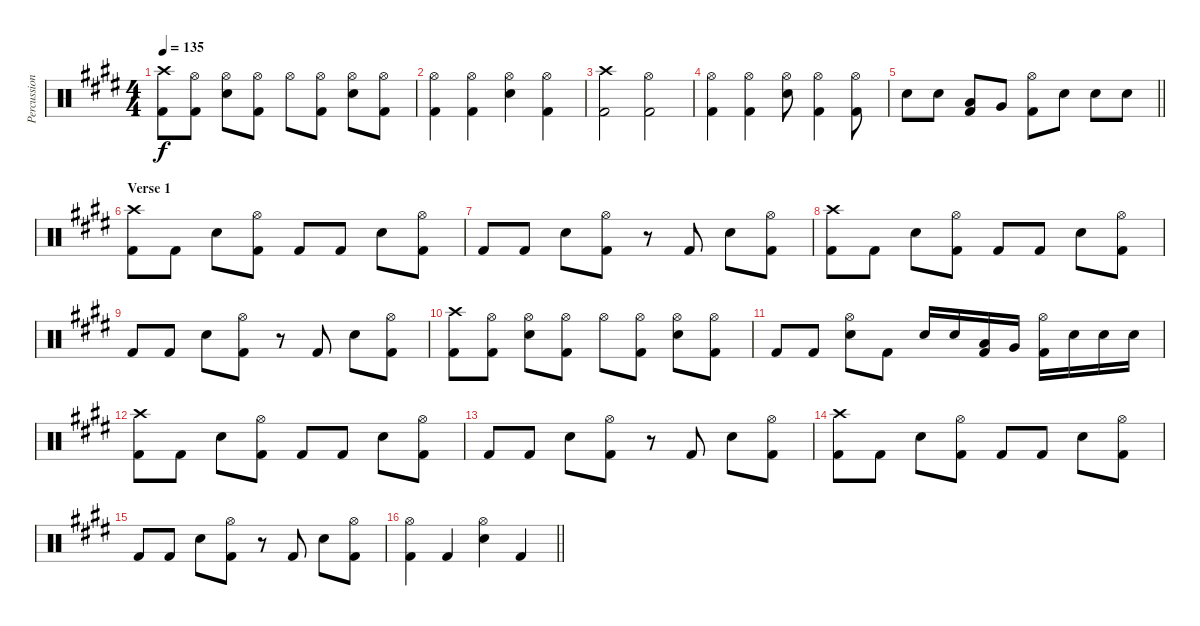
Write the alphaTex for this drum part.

\track ("Percussion" "Percussion") {instrument percussion}
\staff {score}
\articulation defaults
\ts (4 4)
\tempo 135
\clef neutral
\ks e
("Crash high (hit)" "Kick (hit) 2").8{dy f} ("Hi-Hat (open)" "Kick (hit) 2").8 ("Hi-Hat (open)" "Electric Snare (hit)").8 ("Hi-Hat (open)" "Kick (hit) 2").8 "Hi-Hat (open)".8 ("Hi-Hat (open)" "Kick (hit) 2").8 ("Hi-Hat (open)" "Electric Snare (hit)").8 ("Hi-Hat (open)" "Kick (hit) 2").8 |
("Hi-Hat (open)" "Kick (hit) 2").4 ("Hi-Hat (open)" "Kick (hit) 2").4 ("Hi-Hat (open)" "Electric Snare (hit)").4 ("Hi-Hat (open)" "Kick (hit) 2").4 |
("Crash high (hit)" "Kick (hit) 2").2 ("Hi-Hat (open)" "Kick (hit) 2").2 |
("Hi-Hat (open)" "Kick (hit) 2").4 ("Hi-Hat (open)" "Kick (hit) 2").4 ("Hi-Hat (open)" "Electric Snare (hit)").8 ("Hi-Hat (open)" "Kick (hit) 2").4 ("Hi-Hat (open)" "Kick (hit) 2").8 |
\barLineRight lightlight "Electric Snare (hit)".8 "Electric Snare (hit)".8
("Low Tom (hit)" "Kick (hit) 2").8 "Very Low Tom (hit)".8 ("Hi-Hat (open)" "Kick (hit) 2").8 "Electric Snare (hit)".8 "Electric Snare (hit)".8 "Electric Snare (hit)".8 |
\section ("" "Verse 1")
("Crash high (hit)" "Kick (hit) 2").8 "Kick (hit) 2".8 "Electric Snare (hit)".8 ("Hi-Hat (open)" "Kick (hit) 2").8 "Kick (hit) 2".8 "Kick (hit) 2".8 "Electric Snare (hit)".8 ("Hi-Hat (open)" "Kick (hit) 2").8 |
"Kick (hit) 2".8 "Kick (hit) 2".8 "Electric Snare (hit)".8 ("Hi-Hat (open)" "Kick (hit) 2").8 r.8 "Kick (hit) 2".8 "Electric Snare (hit)".8 ("Hi-Hat (open)" "Kick (hit) 2").8 |
("Crash high (hit)" "Kick (hit) 2").8 "Kick (hit) 2".8 "Electric Snare (hit)".8 ("Hi-Hat (open)" "Kick (hit) 2").8 "Kick (hit) 2".8 "Kick (hit) 2".8 "Electric Snare (hit)".8 ("Hi-Hat (open)" "Kick (hit) 2").8 |
"Kick (hit) 2".8 "Kick (hit) 2".8 "Electric Snare (hit)".8 ("Hi-Hat (open)" "Kick (hit) 2").8 r.8 "Kick (hit) 2".8 "Electric Snare (hit)".8 ("Hi-Hat (open)" "Kick (hit) 2").8 |
("Crash high (hit)" "Kick (hit) 2").8 ("Hi-Hat (open)" "Kick (hit) 2").8 ("Hi-Hat (open)" "Electric Snare (hit)").8 ("Hi-Hat (open)" "Kick (hit) 2").8 "Hi-Hat (open)".8 ("Hi-Hat (open)" "Kick (hit) 2").8 ("Hi-Hat (open)" "Electric Snare (hit)").8 ("Hi-Hat (open)" "Kick (hit) 2").8 |
"Kick (hit) 2".8 "Kick (hit) 2".8 ("Hi-Hat (open)" "Electric Snare (hit)").8 "Kick (hit) 2".8 "Electric Snare (hit)".16 "Electric Snare (hit)".16 ("Low Tom (hit)" "Kick (hit) 2").16 "Very Low Tom (hit)".16 ("Hi-Hat (open)" "Kick (hit) 2").16 "Electric Snare (hit)".16 "Electric Snare (hit)".16 "Electric Snare (hit)".16 |
("Crash high (hit)" "Kick (hit) 2").8 "Kick (hit) 2".8 "Electric Snare (hit)".8 ("Hi-Hat (open)" "Kick (hit) 2").8 "Kick (hit) 2".8 "Kick (hit) 2".8 "Electric Snare (hit)".8 ("Hi-Hat (open)" "Kick (hit) 2").8 |
"Kick (hit) 2".8 "Kick (hit) 2".8 "Electric Snare (hit)".8 ("Hi-Hat (open)" "Kick (hit) 2").8 r.8 "Kick (hit) 2".8 "Electric Snare (hit)".8 ("Hi-Hat (open)" "Kick (hit) 2").8 |
("Crash high (hit)" "Kick (hit) 2").8 "Kick (hit) 2".8 "Electric Snare (hit)".8 ("Hi-Hat (open)" "Kick (hit) 2").8 "Kick (hit) 2".8 "Kick (hit) 2".8 "Electric Snare (hit)".8 ("Hi-Hat (open)" "Kick (hit) 2").8 |
"Kick (hit) 2".8 "Kick (hit) 2".8 "Electric Snare (hit)".8 ("Hi-Hat (open)" "Kick (hit) 2").8 r.8 "Kick (hit) 2".8 "Electric Snare (hit)".8 ("Hi-Hat (open)" "Kick (hit) 2").8 |
\barLineRight lightlight
("Hi-Hat (open)" "Kick (hit) 2").4 "Kick (hit) 2".4 ("Hi-Hat (open)" "Electric Snare (hit)").4 "Kick (hit) 2".4
